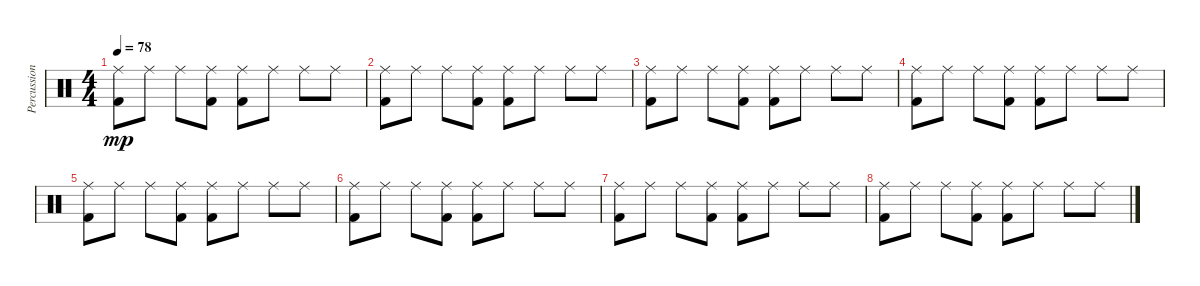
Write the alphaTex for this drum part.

\track ("Percussion" "Percussion") {solo instrument percussion}
\staff {score}
\articulation defaults
\ts (4 4)
\tempo 78
\clef neutral
\ks c
("Kick (hit) 2" "Ride (middle)").8{dy mp} "Ride (middle)".8 "Ride (middle)".8 ("Kick (hit) 2" "Ride (middle)").8 ("Kick (hit) 2" "Ride (middle)").8 "Ride (middle)".8 "Ride (middle)".8 "Ride (middle)".8 |
("Kick (hit) 2" "Ride (middle)").8 "Ride (middle)".8 "Ride (middle)".8 ("Kick (hit) 2" "Ride (middle)").8 ("Kick (hit) 2" "Ride (middle)").8 "Ride (middle)".8 "Ride (middle)".8 "Ride (middle)".8 |
("Kick (hit) 2" "Ride (middle)").8 "Ride (middle)".8 "Ride (middle)".8 ("Kick (hit) 2" "Ride (middle)").8 ("Kick (hit) 2" "Ride (middle)").8 "Ride (middle)".8 "Ride (middle)".8 "Ride (middle)".8 |
("Kick (hit) 2" "Ride (middle)").8 "Ride (middle)".8 "Ride (middle)".8 ("Kick (hit) 2" "Ride (middle)").8 ("Kick (hit) 2" "Ride (middle)").8 "Ride (middle)".8 "Ride (middle)".8 "Ride (middle)".8 |
("Kick (hit) 2" "Ride (middle)").8 "Ride (middle)".8 "Ride (middle)".8 ("Kick (hit) 2" "Ride (middle)").8 ("Kick (hit) 2" "Ride (middle)").8 "Ride (middle)".8 "Ride (middle)".8 "Ride (middle)".8 |
("Kick (hit) 2" "Ride (middle)").8 "Ride (middle)".8 "Ride (middle)".8 ("Kick (hit) 2" "Ride (middle)").8 ("Kick (hit) 2" "Ride (middle)").8 "Ride (middle)".8 "Ride (middle)".8 "Ride (middle)".8 |
("Kick (hit) 2" "Ride (middle)").8 "Ride (middle)".8 "Ride (middle)".8 ("Kick (hit) 2" "Ride (middle)").8 ("Kick (hit) 2" "Ride (middle)").8 "Ride (middle)".8 "Ride (middle)".8 "Ride (middle)".8 |
("Kick (hit) 2" "Ride (middle)").8 "Ride (middle)".8 "Ride (middle)".8 ("Kick (hit) 2" "Ride (middle)").8 ("Kick (hit) 2" "Ride (middle)").8 "Ride (middle)".8 "Ride (middle)".8 "Ride (middle)".8
